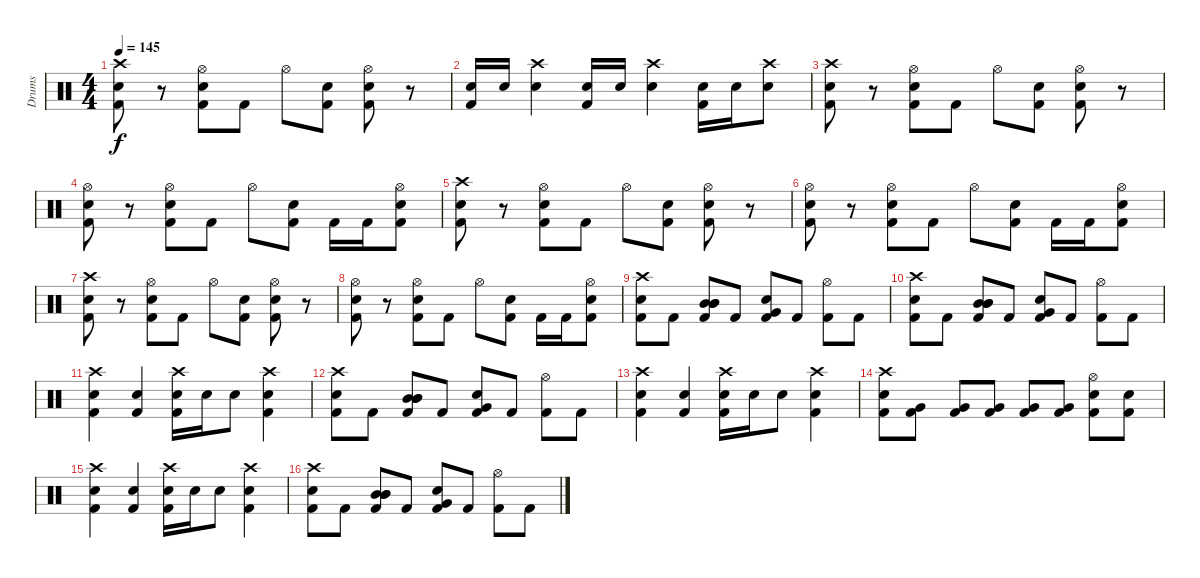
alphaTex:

\track ("Drums" "Drums") {instrument percussion}
\staff {score}
\articulation defaults
\ts (4 4)
\tempo 145
\clef neutral
\ks c
("Crash high (hit)" "Snare (hit) 2" "Kick (hit) 2").8{dy f} r.8 ("Snare (hit) 2" "Hi-Hat (open)" "Kick (hit) 2").8 "Kick (hit) 2".8 "Hi-Hat (open)".8 ("Snare (hit) 2" "Kick (hit) 2").8 ("Snare (hit) 2" "Hi-Hat (open)" "Kick (hit) 2").8 r.8 |
("Snare (hit) 2" "Kick (hit) 2").16 "Snare (hit) 2".16 ("Crash high (hit)" "Snare (hit) 2").4 ("Snare (hit) 2" "Kick (hit) 2").16 "Snare (hit) 2".16 ("Crash high (hit)" "Snare (hit) 2").4 ("Snare (hit) 2" "Kick (hit) 2").16 "Snare (hit) 2".16 ("Crash high (hit)" "Snare (hit) 2").8 |
("Crash high (hit)" "Snare (hit) 2" "Kick (hit) 2").8 r.8 ("Snare (hit) 2" "Hi-Hat (open)" "Kick (hit) 2").8 "Kick (hit) 2".8 "Hi-Hat (open)".8 ("Snare (hit) 2" "Kick (hit) 2").8 ("Snare (hit) 2" "Hi-Hat (open)" "Kick (hit) 2").8 r.8 |
("Hi-Hat (open)" "Snare (hit) 2" "Kick (hit) 2").8 r.8 ("Snare (hit) 2" "Hi-Hat (open)" "Kick (hit) 2").8 "Kick (hit) 2".8 "Hi-Hat (open)".8 ("Snare (hit) 2" "Kick (hit) 2").8 "Kick (hit) 2".16 "Kick (hit) 2".16 ("Hi-Hat (open)" "Snare (hit) 2" "Kick (hit) 2").8 |
("Crash high (hit)" "Snare (hit) 2" "Kick (hit) 2").8 r.8 ("Snare (hit) 2" "Hi-Hat (open)" "Kick (hit) 2").8 "Kick (hit) 2".8 "Hi-Hat (open)".8 ("Snare (hit) 2" "Kick (hit) 2").8 ("Snare (hit) 2" "Hi-Hat (open)" "Kick (hit) 2").8 r.8 |
("Hi-Hat (open)" "Snare (hit) 2" "Kick (hit) 2").8 r.8 ("Snare (hit) 2" "Hi-Hat (open)" "Kick (hit) 2").8 "Kick (hit) 2".8 "Hi-Hat (open)".8 ("Snare (hit) 2" "Kick (hit) 2").8 "Kick (hit) 2".16 "Kick (hit) 2".16 ("Hi-Hat (open)" "Snare (hit) 2" "Kick (hit) 2").8 |
("Crash high (hit)" "Snare (hit) 2" "Kick (hit) 2").8 r.8 ("Snare (hit) 2" "Hi-Hat (open)" "Kick (hit) 2").8 "Kick (hit) 2".8 "Hi-Hat (open)".8 ("Snare (hit) 2" "Kick (hit) 2").8 ("Snare (hit) 2" "Hi-Hat (open)" "Kick (hit) 2").8 r.8 |
("Hi-Hat (open)" "Snare (hit) 2" "Kick (hit) 2").8 r.8 ("Snare (hit) 2" "Hi-Hat (open)" "Kick (hit) 2").8 "Kick (hit) 2".8 "Hi-Hat (open)".8 ("Snare (hit) 2" "Kick (hit) 2").8 "Kick (hit) 2".16 "Kick (hit) 2".16 ("Hi-Hat (open)" "Snare (hit) 2" "Kick (hit) 2").8 |
("Crash high (hit)" "Snare (hit) 2" "Kick (hit) 2").8 "Kick (hit) 2".8 ("Mid Tom (hit)" "Mid Tom (hit)" "Mid Tom (hit)" "Kick (hit) 2").8 "Kick (hit) 2".8 ("Snare (hit) 2" "Very Low Tom (hit)" "Kick (hit) 2").8 "Kick (hit) 2".8 ("Hi-Hat (open)" "Kick (hit) 2").8 "Kick (hit) 2".8 |
("Crash high (hit)" "Snare (hit) 2" "Kick (hit) 2").8 "Kick (hit) 2".8 ("Mid Tom (hit)" "Mid Tom (hit)" "Mid Tom (hit)" "Kick (hit) 2").8 "Kick (hit) 2".8 ("Snare (hit) 2" "Very Low Tom (hit)" "Kick (hit) 2").8 "Kick (hit) 2".8 ("Hi-Hat (open)" "Kick (hit) 2").8 "Kick (hit) 2".8 |
("Crash high (hit)" "Snare (hit) 2" "Kick (hit) 2").4 ("Snare (hit) 2" "Kick (hit) 2").4 ("Crash high (hit)" "Snare (hit) 2" "Kick (hit) 2").16 "Snare (hit) 2".16 "Snare (hit) 2".8 ("Crash high (hit)" "Snare (hit) 2" "Kick (hit) 2").4 |
("Crash high (hit)" "Snare (hit) 2" "Kick (hit) 2").8 "Kick (hit) 2".8 ("Mid Tom (hit)" "Mid Tom (hit)" "Mid Tom (hit)" "Kick (hit) 2").8 "Kick (hit) 2".8 ("Snare (hit) 2" "Very Low Tom (hit)" "Kick (hit) 2").8 "Kick (hit) 2".8 ("Hi-Hat (open)" "Kick (hit) 2").8 "Kick (hit) 2".8 |
("Crash high (hit)" "Snare (hit) 2" "Kick (hit) 2").4 ("Snare (hit) 2" "Kick (hit) 2").4 ("Crash high (hit)" "Snare (hit) 2" "Kick (hit) 2").16 "Snare (hit) 2".16 "Snare (hit) 2".8 ("Crash high (hit)" "Snare (hit) 2" "Kick (hit) 2").4 |
("Crash high (hit)" "Snare (hit) 2" "Kick (hit) 2").8 ("Very Low Tom (hit)" "Kick (hit) 2").8 ("Very Low Tom (hit)" "Kick (hit) 2").8 ("Very Low Tom (hit)" "Kick (hit) 2").8 ("Very Low Tom (hit)" "Kick (hit) 2").8 ("Very Low Tom (hit)" "Kick (hit) 2").8 ("Hi-Hat (open)" "Snare (hit) 2" "Kick (hit) 2").8 ("Snare (hit) 2" "Kick (hit) 2").8 |
("Crash high (hit)" "Snare (hit) 2" "Kick (hit) 2").4 ("Snare (hit) 2" "Kick (hit) 2").4 ("Crash high (hit)" "Snare (hit) 2" "Kick (hit) 2").16 "Snare (hit) 2".16 "Snare (hit) 2".8 ("Crash high (hit)" "Snare (hit) 2" "Kick (hit) 2").4 |
("Crash high (hit)" "Snare (hit) 2" "Kick (hit) 2").8 "Kick (hit) 2".8 ("Mid Tom (hit)" "Mid Tom (hit)" "Mid Tom (hit)" "Kick (hit) 2").8 "Kick (hit) 2".8 ("Snare (hit) 2" "Very Low Tom (hit)" "Kick (hit) 2").8 "Kick (hit) 2".8 ("Hi-Hat (open)" "Kick (hit) 2").8 "Kick (hit) 2".8
